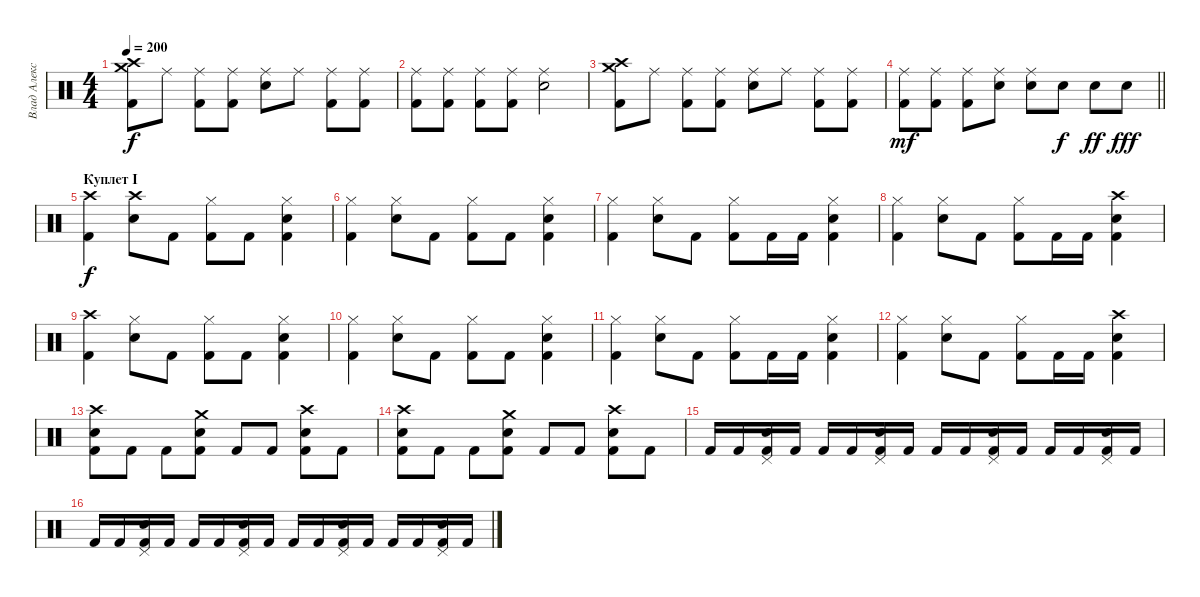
\track ("Влад Алексеенко" "Влад Алекс") {instrument percussion}
\staff {score}
\articulation defaults
\ts (4 4)
\tempo 200
\clef neutral
\ks c
("Crash high (hit)" "Crash medium (hit)" "Kick (hit) 2").8{dy f} "Ride (middle)".8 ("Ride (middle)" "Kick (hit) 2").8 ("Ride (middle)" "Kick (hit) 2").8 ("Ride (middle)" "Electric Snare (hit)").8 "Ride (middle)".8 ("Ride (middle)" "Kick (hit) 2").8 ("Ride (middle)" "Kick (hit) 2").8 |
("Ride (middle)" "Kick (hit) 2").8 ("Ride (middle)" "Kick (hit) 2").8 ("Ride (middle)" "Kick (hit) 2").8 ("Ride (middle)" "Kick (hit) 2").8 ("Ride (middle)" "Electric Snare (hit)").2 |
("Crash high (hit)" "Crash medium (hit)" "Kick (hit) 2").8 "Ride (middle)".8 ("Ride (middle)" "Kick (hit) 2").8 ("Ride (middle)" "Kick (hit) 2").8 ("Ride (middle)" "Electric Snare (hit)").8 "Ride (middle)".8 ("Ride (middle)" "Kick (hit) 2").8 ("Ride (middle)" "Kick (hit) 2").8 |
\barLineRight lightlight
("Ride (middle)" "Kick (hit) 2").8{dy mf} ("Ride (middle)" "Kick (hit) 2").8 ("Ride (middle)" "Kick (hit) 2").8 ("Ride (middle)" "Electric Snare (hit)").8 ("Ride (middle)" "Electric Snare (hit)").8 "Electric Snare (hit)".8{dy f} "Electric Snare (hit)".8{dy ff} "Electric Snare (hit)".8{dy fff} |
\section ("" "Куплет I")
("Crash high (hit)" "Kick (hit) 2").4{dy f} ("Crash high (hit)" "Electric Snare (hit)").8 "Kick (hit) 2".8 ("Hi-Hat (closed)" "Kick (hit) 2").8 "Kick (hit) 2".8 ("Hi-Hat (closed)" "Electric Snare (hit)" "Kick (hit) 2").4 |
("Hi-Hat (closed)" "Kick (hit) 2").4 ("Hi-Hat (closed)" "Electric Snare (hit)").8 "Kick (hit) 2".8 ("Hi-Hat (closed)" "Kick (hit) 2").8 "Kick (hit) 2".8 ("Hi-Hat (closed)" "Electric Snare (hit)" "Kick (hit) 2").4 |
("Hi-Hat (closed)" "Kick (hit) 2").4 ("Hi-Hat (closed)" "Electric Snare (hit)").8 "Kick (hit) 2".8 ("Hi-Hat (closed)" "Kick (hit) 2").8 "Kick (hit) 2".16 "Kick (hit) 2".16 ("Hi-Hat (closed)" "Electric Snare (hit)" "Kick (hit) 2").4 |
("Hi-Hat (closed)" "Kick (hit) 2").4 ("Hi-Hat (closed)" "Electric Snare (hit)").8 "Kick (hit) 2".8 ("Hi-Hat (closed)" "Kick (hit) 2").8 "Kick (hit) 2".16 "Kick (hit) 2".16 ("Crash high (hit)" "Electric Snare (hit)" "Kick (hit) 2").4 |
("Crash high (hit)" "Kick (hit) 2").4 ("Hi-Hat (closed)" "Electric Snare (hit)").8 "Kick (hit) 2".8 ("Hi-Hat (closed)" "Kick (hit) 2").8 "Kick (hit) 2".8 ("Hi-Hat (closed)" "Electric Snare (hit)" "Kick (hit) 2").4 |
("Hi-Hat (closed)" "Kick (hit) 2").4 ("Hi-Hat (closed)" "Electric Snare (hit)").8 "Kick (hit) 2".8 ("Hi-Hat (closed)" "Kick (hit) 2").8 "Kick (hit) 2".8 ("Hi-Hat (closed)" "Electric Snare (hit)" "Kick (hit) 2").4 |
("Hi-Hat (closed)" "Kick (hit) 2").4 ("Hi-Hat (closed)" "Electric Snare (hit)").8 "Kick (hit) 2".8 ("Hi-Hat (closed)" "Kick (hit) 2").8 "Kick (hit) 2".16 "Kick (hit) 2".16 ("Hi-Hat (closed)" "Electric Snare (hit)" "Kick (hit) 2").4 |
("Hi-Hat (closed)" "Kick (hit) 2").4 ("Hi-Hat (closed)" "Electric Snare (hit)").8 "Kick (hit) 2".8 ("Hi-Hat (closed)" "Kick (hit) 2").8 "Kick (hit) 2".16 "Kick (hit) 2".16 ("Crash high (hit)" "Electric Snare (hit)" "Kick (hit) 2").4 |
("Crash high (hit)" "Electric Snare (hit)" "Kick (hit) 2").8 "Kick (hit) 2".8 "Kick (hit) 2".8 ("Crash medium (hit)" "Electric Snare (hit)" "Kick (hit) 2").8 "Kick (hit) 2".8 "Kick (hit) 2".8 ("Crash high (hit)" "Electric Snare (hit)" "Kick (hit) 2").8 "Kick (hit) 2".8 |
("Crash high (hit)" "Electric Snare (hit)" "Kick (hit) 2").8 "Kick (hit) 2".8 "Kick (hit) 2".8 ("Crash medium (hit)" "Electric Snare (hit)" "Kick (hit) 2").8 "Kick (hit) 2".8 "Kick (hit) 2".8 ("Crash high (hit)" "Electric Snare (hit)" "Kick (hit) 2").8 "Kick (hit) 2".8 |
"Kick (hit) 2".16 "Kick (hit) 2".16 ("Kick (hit) 2" "Electric Snare (hit)" "Pedal Hi-Hat (hit)").16 "Kick (hit) 2".16 "Kick (hit) 2".16 "Kick (hit) 2".16 ("Kick (hit) 2" "Electric Snare (hit)" "Pedal Hi-Hat (hit)").16 "Kick (hit) 2".16 "Kick (hit) 2".16 "Kick (hit) 2".16 ("Kick (hit) 2" "Electric Snare (hit)" "Pedal Hi-Hat (hit)").16 "Kick (hit) 2".16 "Kick (hit) 2".16 "Kick (hit) 2".16 ("Kick (hit) 2" "Electric Snare (hit)" "Pedal Hi-Hat (hit)").16 "Kick (hit) 2".16 |
"Kick (hit) 2".16 "Kick (hit) 2".16 ("Kick (hit) 2" "Electric Snare (hit)" "Pedal Hi-Hat (hit)").16 "Kick (hit) 2".16 "Kick (hit) 2".16 "Kick (hit) 2".16 ("Kick (hit) 2" "Electric Snare (hit)" "Pedal Hi-Hat (hit)").16 "Kick (hit) 2".16 "Kick (hit) 2".16 "Kick (hit) 2".16 ("Kick (hit) 2" "Electric Snare (hit)" "Pedal Hi-Hat (hit)").16 "Kick (hit) 2".16 "Kick (hit) 2".16 "Kick (hit) 2".16 ("Kick (hit) 2" "Electric Snare (hit)" "Pedal Hi-Hat (hit)").16 "Kick (hit) 2".16
